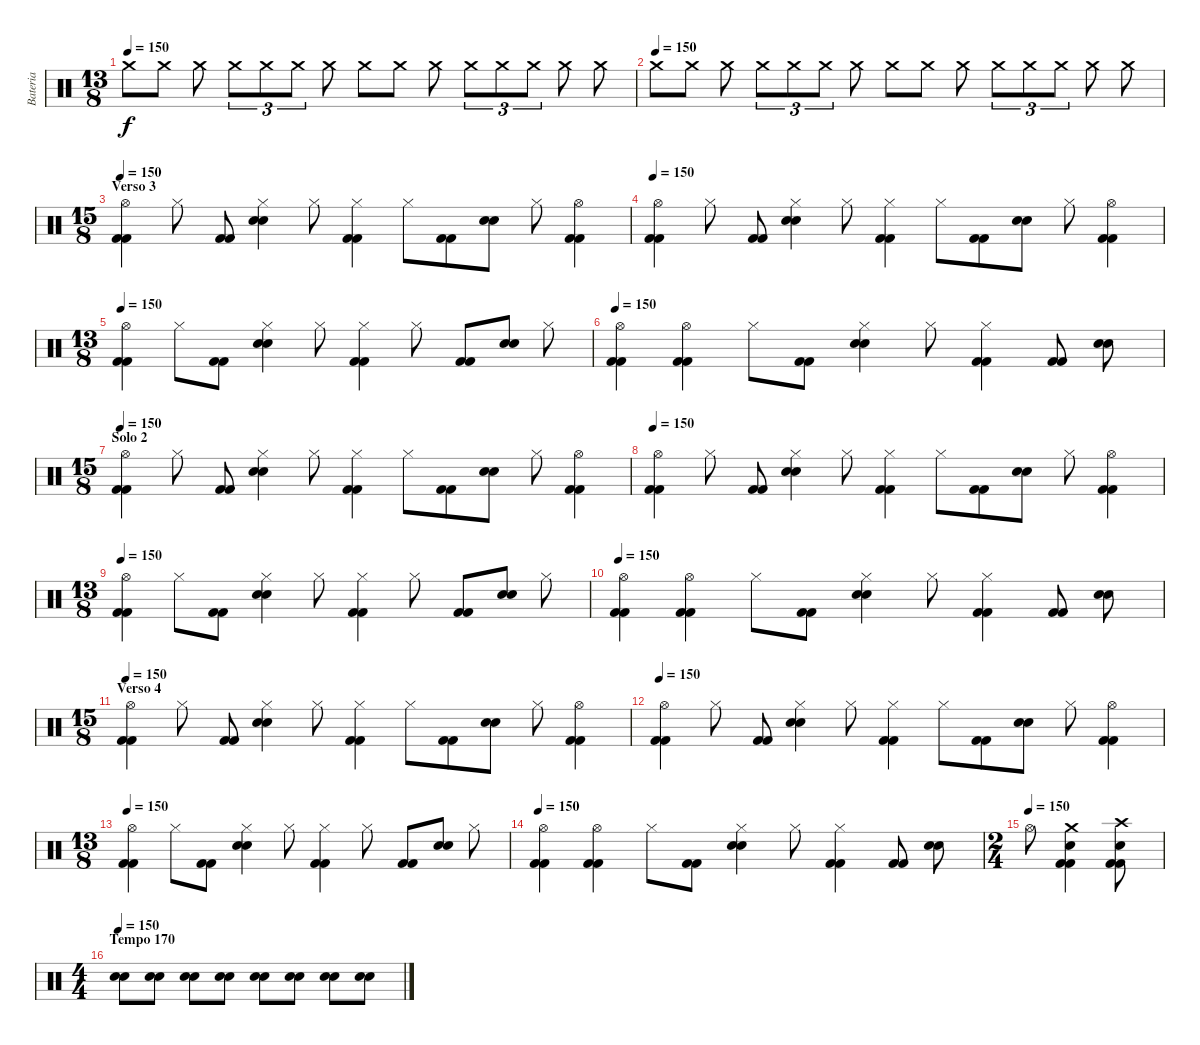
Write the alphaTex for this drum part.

\track ("Bateria" "Bateria") {instrument percussion}
\staff {score}
\articulation defaults
\ts (13 8)
\tempo 150
\clef neutral
\ks c "Crash medium (hit)".8{dy f volume 0} "Crash medium (hit)".8{volume 15} "Crash medium (hit)".8 "Crash medium (hit)".8{tu (3 2)} "Crash medium (hit)".8{tu (3 2)} "Crash medium (hit)".8{tu (3 2)} "Crash medium (hit)".8 "Crash medium (hit)".8 "Crash medium (hit)".8 "Crash medium (hit)".8 "Crash medium (hit)".8{tu (3 2)} "Crash medium (hit)".8{tu (3 2)} "Crash medium (hit)".8{tu (3 2)} "Crash medium (hit)".8 "Crash medium (hit)".8
|
\tempo (150)
"Crash medium (hit)".8{volume 0} "Crash medium (hit)".8{volume 15} "Crash medium (hit)".8 "Crash medium (hit)".8{tu (3 2)} "Crash medium (hit)".8{tu (3 2)} "Crash medium (hit)".8{tu (3 2)} "Crash medium (hit)".8 "Crash medium (hit)".8 "Crash medium (hit)".8 "Crash medium (hit)".8 "Crash medium (hit)".8{tu (3 2)} "Crash medium (hit)".8{tu (3 2)} "Crash medium (hit)".8{tu (3 2)} "Crash medium (hit)".8 "Crash medium (hit)".8 |
\ts (15 8)
\section ("" "Verso 3")
\tempo 150
("Hi-Hat (open)" "Kick (hit) 2" "Kick (hit) 2").4 "Hi-Hat (closed)".8 ("Kick (hit) 2" "Kick (hit) 2").8 ("Hi-Hat (closed)" "Electric Snare (hit)" "Electric Snare (hit)").4 "Hi-Hat (closed)".8 ("Hi-Hat (closed)" "Kick (hit) 2" "Kick (hit) 2").4 "Hi-Hat (closed)".8 ("Kick (hit) 2" "Kick (hit) 2").8 ("Electric Snare (hit)" "Electric Snare (hit)").8 "Hi-Hat (closed)".8 ("Hi-Hat (open)" "Kick (hit) 2" "Kick (hit) 2").4 |
\tempo 150
("Hi-Hat (open)" "Kick (hit) 2" "Kick (hit) 2").4 "Hi-Hat (closed)".8 ("Kick (hit) 2" "Kick (hit) 2").8 ("Hi-Hat (closed)" "Electric Snare (hit)" "Electric Snare (hit)").4 "Hi-Hat (closed)".8 ("Hi-Hat (closed)" "Kick (hit) 2" "Kick (hit) 2").4 "Hi-Hat (closed)".8 ("Kick (hit) 2" "Kick (hit) 2").8 ("Electric Snare (hit)" "Electric Snare (hit)").8 "Hi-Hat (closed)".8 ("Hi-Hat (open)" "Kick (hit) 2" "Kick (hit) 2").4 |
\ts (13 8)
\tempo 150
("Hi-Hat (open)" "Kick (hit) 2" "Kick (hit) 2").4 "Hi-Hat (closed)".8 ("Kick (hit) 2" "Kick (hit) 2").8 ("Hi-Hat (closed)" "Electric Snare (hit)" "Electric Snare (hit)").4 "Hi-Hat (closed)".8 ("Hi-Hat (closed)" "Kick (hit) 2" "Kick (hit) 2").4 "Hi-Hat (closed)".8 ("Kick (hit) 2" "Kick (hit) 2").8 ("Electric Snare (hit)" "Electric Snare (hit)").8 "Hi-Hat (closed)".8 |
\tempo 150
("Hi-Hat (open)" "Kick (hit) 2" "Kick (hit) 2").4 ("Hi-Hat (open)" "Kick (hit) 2" "Kick (hit) 2").4 "Hi-Hat (closed)".8 ("Kick (hit) 2" "Kick (hit) 2").8 ("Hi-Hat (closed)" "Electric Snare (hit)" "Electric Snare (hit)").4 "Hi-Hat (closed)".8 ("Hi-Hat (closed)" "Kick (hit) 2" "Kick (hit) 2").4 ("Kick (hit) 2" "Kick (hit) 2").8 ("Electric Snare (hit)" "Electric Snare (hit)").8 |
\ts (15 8)
\section ("" "Solo 2")
\tempo 150
("Hi-Hat (open)" "Kick (hit) 2" "Kick (hit) 2").4 "Hi-Hat (closed)".8 ("Kick (hit) 2" "Kick (hit) 2").8 ("Hi-Hat (closed)" "Electric Snare (hit)" "Electric Snare (hit)").4 "Hi-Hat (closed)".8 ("Hi-Hat (closed)" "Kick (hit) 2" "Kick (hit) 2").4 "Hi-Hat (closed)".8 ("Kick (hit) 2" "Kick (hit) 2").8 ("Electric Snare (hit)" "Electric Snare (hit)").8 "Hi-Hat (closed)".8 ("Hi-Hat (open)" "Kick (hit) 2" "Kick (hit) 2").4 |
\tempo 150
("Hi-Hat (open)" "Kick (hit) 2" "Kick (hit) 2").4 "Hi-Hat (closed)".8 ("Kick (hit) 2" "Kick (hit) 2").8 ("Hi-Hat (closed)" "Electric Snare (hit)" "Electric Snare (hit)").4 "Hi-Hat (closed)".8 ("Hi-Hat (closed)" "Kick (hit) 2" "Kick (hit) 2").4 "Hi-Hat (closed)".8 ("Kick (hit) 2" "Kick (hit) 2").8 ("Electric Snare (hit)" "Electric Snare (hit)").8 "Hi-Hat (closed)".8 ("Hi-Hat (open)" "Kick (hit) 2" "Kick (hit) 2").4 |
\ts (13 8)
\tempo 150
("Hi-Hat (open)" "Kick (hit) 2" "Kick (hit) 2").4 "Hi-Hat (closed)".8 ("Kick (hit) 2" "Kick (hit) 2").8 ("Hi-Hat (closed)" "Electric Snare (hit)" "Electric Snare (hit)").4 "Hi-Hat (closed)".8 ("Hi-Hat (closed)" "Kick (hit) 2" "Kick (hit) 2").4 "Hi-Hat (closed)".8 ("Kick (hit) 2" "Kick (hit) 2").8 ("Electric Snare (hit)" "Electric Snare (hit)").8 "Hi-Hat (closed)".8 |
\tempo 150
("Hi-Hat (open)" "Kick (hit) 2" "Kick (hit) 2").4 ("Hi-Hat (open)" "Kick (hit) 2" "Kick (hit) 2").4 "Hi-Hat (closed)".8 ("Kick (hit) 2" "Kick (hit) 2").8 ("Hi-Hat (closed)" "Electric Snare (hit)" "Electric Snare (hit)").4 "Hi-Hat (closed)".8 ("Hi-Hat (closed)" "Kick (hit) 2" "Kick (hit) 2").4 ("Kick (hit) 2" "Kick (hit) 2").8 ("Electric Snare (hit)" "Electric Snare (hit)").8 |
\ts (15 8)
\section ("" "Verso 4")
\tempo 150
("Hi-Hat (open)" "Kick (hit) 2" "Kick (hit) 2").4 "Hi-Hat (closed)".8 ("Kick (hit) 2" "Kick (hit) 2").8 ("Hi-Hat (closed)" "Electric Snare (hit)" "Electric Snare (hit)").4 "Hi-Hat (closed)".8 ("Hi-Hat (closed)" "Kick (hit) 2" "Kick (hit) 2").4 "Hi-Hat (closed)".8 ("Kick (hit) 2" "Kick (hit) 2").8 ("Electric Snare (hit)" "Electric Snare (hit)").8 "Hi-Hat (closed)".8 ("Hi-Hat (open)" "Kick (hit) 2" "Kick (hit) 2").4 |
\tempo 150
("Hi-Hat (open)" "Kick (hit) 2" "Kick (hit) 2").4 "Hi-Hat (closed)".8 ("Kick (hit) 2" "Kick (hit) 2").8 ("Hi-Hat (closed)" "Electric Snare (hit)" "Electric Snare (hit)").4 "Hi-Hat (closed)".8 ("Hi-Hat (closed)" "Kick (hit) 2" "Kick (hit) 2").4 "Hi-Hat (closed)".8 ("Kick (hit) 2" "Kick (hit) 2").8 ("Electric Snare (hit)" "Electric Snare (hit)").8 "Hi-Hat (closed)".8 ("Hi-Hat (open)" "Kick (hit) 2" "Kick (hit) 2").4 |
\ts (13 8)
\tempo 150
("Hi-Hat (open)" "Kick (hit) 2" "Kick (hit) 2").4 "Hi-Hat (closed)".8 ("Kick (hit) 2" "Kick (hit) 2").8 ("Hi-Hat (closed)" "Electric Snare (hit)" "Electric Snare (hit)").4 "Hi-Hat (closed)".8 ("Hi-Hat (closed)" "Kick (hit) 2" "Kick (hit) 2").4 "Hi-Hat (closed)".8 ("Kick (hit) 2" "Kick (hit) 2").8 ("Electric Snare (hit)" "Electric Snare (hit)").8 "Hi-Hat (closed)".8 |
\tempo 150
("Hi-Hat (open)" "Kick (hit) 2" "Kick (hit) 2").4 ("Hi-Hat (open)" "Kick (hit) 2" "Kick (hit) 2").4 "Hi-Hat (closed)".8 ("Kick (hit) 2" "Kick (hit) 2").8 ("Hi-Hat (closed)" "Electric Snare (hit)" "Electric Snare (hit)").4 "Hi-Hat (closed)".8 ("Hi-Hat (closed)" "Kick (hit) 2" "Kick (hit) 2").4 ("Kick (hit) 2" "Kick (hit) 2").8 ("Electric Snare (hit)" "Electric Snare (hit)").8 |
\ts (2 4)
\tempo (150)
"Hi-Hat (open)".8 ("Crash medium (hit)" "Snare (hit) 2" "Kick (hit) 2" "Kick (hit) 2").4 ("Crash high (hit)" "Snare (hit) 2" "Kick (hit) 2" "Kick (hit) 2").8 |
\ts (4 4)
\section ("" "Tempo 170")
\tempo 150
("Snare (hit) 2" "Snare (hit) 2").8 ("Snare (hit) 2" "Snare (hit) 2").8 ("Snare (hit) 2" "Snare (hit) 2").8 ("Snare (hit) 2" "Snare (hit) 2").8 ("Snare (hit) 2" "Snare (hit) 2").8 ("Snare (hit) 2" "Snare (hit) 2").8 ("Snare (hit) 2" "Snare (hit) 2").8 ("Snare (hit) 2" "Snare (hit) 2").8
